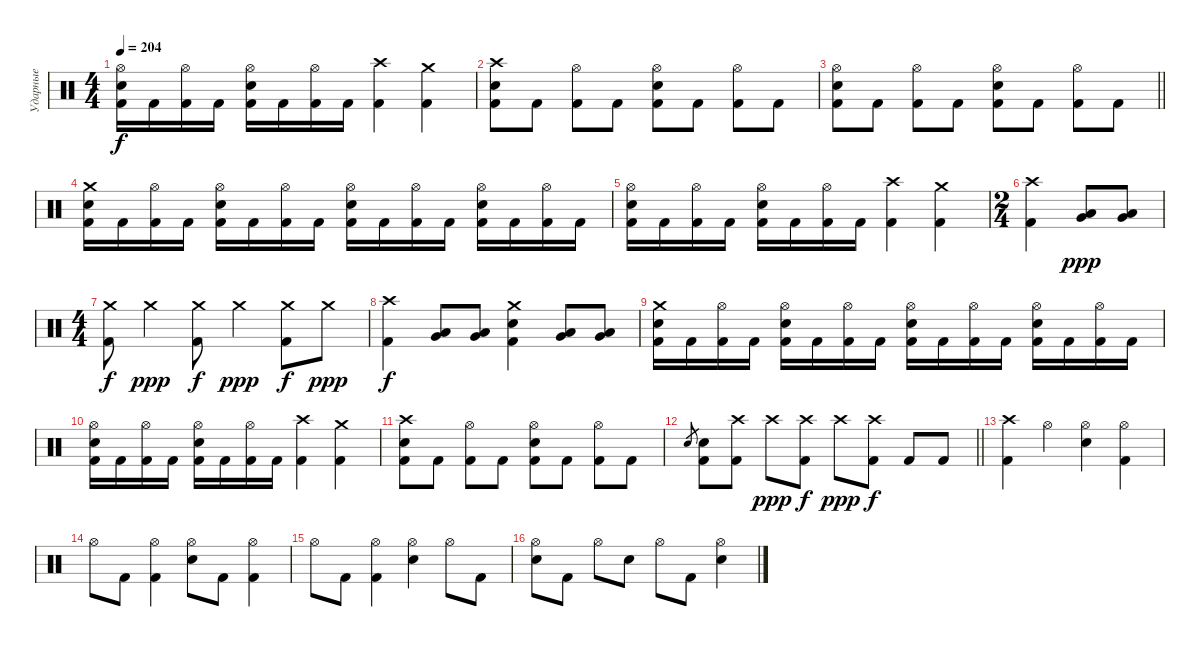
\track ("Ударные" "Ударные") {instrument percussion}
\staff {score}
\articulation defaults
\ts (4 4)
\tempo 204
\clef neutral
\ks c
("Hi-Hat (open)" "Snare (hit) 2" "Kick (hit) 2").16{dy f} "Kick (hit) 2".16 ("Hi-Hat (open)" "Kick (hit) 2").16 "Kick (hit) 2".16 ("Hi-Hat (open)" "Snare (hit) 2" "Kick (hit) 2").16 "Kick (hit) 2".16 ("Hi-Hat (open)" "Kick (hit) 2").16 "Kick (hit) 2".16 ("Crash high (hit)" "Kick (hit) 2").4 ("Crash medium (hit)" "Kick (hit) 2").4 |
("Crash high (hit)" "Snare (hit) 2" "Kick (hit) 2").8 "Kick (hit) 2".8 ("Hi-Hat (open)" "Kick (hit) 2").8 "Kick (hit) 2".8 ("Hi-Hat (open)" "Snare (hit) 2" "Kick (hit) 2").8 "Kick (hit) 2".8 ("Hi-Hat (open)" "Kick (hit) 2").8 "Kick (hit) 2".8 |
\barLineRight lightlight
("Hi-Hat (open)" "Snare (hit) 2" "Kick (hit) 2").8 "Kick (hit) 2".8 ("Hi-Hat (open)" "Kick (hit) 2").8 "Kick (hit) 2".8 ("Hi-Hat (open)" "Snare (hit) 2" "Kick (hit) 2").8 "Kick (hit) 2".8 ("Hi-Hat (open)" "Kick (hit) 2").8 "Kick (hit) 2".8 |
("Crash medium (hit)" "Snare (hit) 2" "Kick (hit) 2").16 "Kick (hit) 2".16 ("Hi-Hat (open)" "Kick (hit) 2").16 "Kick (hit) 2".16 ("Hi-Hat (open)" "Snare (hit) 2" "Kick (hit) 2").16 "Kick (hit) 2".16 ("Hi-Hat (open)" "Kick (hit) 2").16 "Kick (hit) 2".16 ("Hi-Hat (open)" "Snare (hit) 2" "Kick (hit) 2").16 "Kick (hit) 2".16 ("Hi-Hat (open)" "Kick (hit) 2").16 "Kick (hit) 2".16 ("Hi-Hat (open)" "Snare (hit) 2" "Kick (hit) 2").16 "Kick (hit) 2".16 ("Hi-Hat (open)" "Kick (hit) 2").16 "Kick (hit) 2".16 |
("Hi-Hat (open)" "Snare (hit) 2" "Kick (hit) 2").16 "Kick (hit) 2".16 ("Hi-Hat (open)" "Kick (hit) 2").16 "Kick (hit) 2".16 ("Hi-Hat (open)" "Snare (hit) 2" "Kick (hit) 2").16 "Kick (hit) 2".16 ("Hi-Hat (open)" "Kick (hit) 2").16 "Kick (hit) 2".16 ("Crash high (hit)" "Kick (hit) 2").4 ("Crash medium (hit)" "Kick (hit) 2").4 |
\ts (2 4)
("Crash high (hit)" "Kick (hit) 2").4 ("Low Tom (hit)" "Very Low Tom (hit)").8{dy ppp} ("Low Tom (hit)" "Very Low Tom (hit)").8 |
\ts (4 4)
("Crash medium (hit)" "Kick (hit) 2").8{dy f} "Crash medium (hit)".4{dy ppp} ("Crash medium (hit)" "Kick (hit) 2").8{dy f} "Crash medium (hit)".4{dy ppp} ("Crash medium (hit)" "Kick (hit) 2").8{dy f} "Crash medium (hit)".8{dy ppp} |
("Crash high (hit)" "Kick (hit) 2").4{dy f} ("Low Tom (hit)" "Very Low Tom (hit)").8 ("Low Tom (hit)" "Very Low Tom (hit)").8 ("Crash medium (hit)" "Snare (hit) 2" "Kick (hit) 2").4 ("Low Tom (hit)" "Very Low Tom (hit)").8 ("Low Tom (hit)" "Very Low Tom (hit)").8 |
("Crash medium (hit)" "Snare (hit) 2" "Kick (hit) 2").16 "Kick (hit) 2".16 ("Hi-Hat (open)" "Kick (hit) 2").16 "Kick (hit) 2".16 ("Hi-Hat (open)" "Snare (hit) 2" "Kick (hit) 2").16 "Kick (hit) 2".16 ("Hi-Hat (open)" "Kick (hit) 2").16 "Kick (hit) 2".16 ("Hi-Hat (open)" "Snare (hit) 2" "Kick (hit) 2").16 "Kick (hit) 2".16 ("Hi-Hat (open)" "Kick (hit) 2").16 "Kick (hit) 2".16 ("Hi-Hat (open)" "Snare (hit) 2" "Kick (hit) 2").16 "Kick (hit) 2".16 ("Hi-Hat (open)" "Kick (hit) 2").16 "Kick (hit) 2".16 |
("Hi-Hat (open)" "Snare (hit) 2" "Kick (hit) 2").16 "Kick (hit) 2".16 ("Hi-Hat (open)" "Kick (hit) 2").16 "Kick (hit) 2".16 ("Hi-Hat (open)" "Snare (hit) 2" "Kick (hit) 2").16 "Kick (hit) 2".16 ("Hi-Hat (open)" "Kick (hit) 2").16 "Kick (hit) 2".16 ("Crash high (hit)" "Kick (hit) 2").4 ("Crash medium (hit)" "Kick (hit) 2").4 |
("Crash high (hit)" "Snare (hit) 2" "Kick (hit) 2").8 "Kick (hit) 2".8 ("Hi-Hat (open)" "Kick (hit) 2").8 "Kick (hit) 2".8 ("Hi-Hat (open)" "Snare (hit) 2" "Kick (hit) 2").8 "Kick (hit) 2".8 ("Hi-Hat (open)" "Kick (hit) 2").8 "Kick (hit) 2".8 |
\barLineRight lightlight "Snare (hit) 2".8{gr}
("Snare (hit) 2" "Kick (hit) 2").8 ("Crash high (hit)" "Kick (hit) 2").8 "Crash high (hit)".8{dy ppp} ("Crash high (hit)" "Kick (hit) 2").8{dy f} "Crash high (hit)".8{dy ppp} ("Crash high (hit)" "Kick (hit) 2").8{dy f} "Kick (hit) 2".8 "Kick (hit) 2".8 |
("Crash high (hit)" "Kick (hit) 2").4 "Hi-Hat (open)".4 ("Hi-Hat (open)" "Snare (hit) 2").4 ("Hi-Hat (open)" "Kick (hit) 2").4 |
"Hi-Hat (open)".8 "Kick (hit) 2".8 ("Hi-Hat (open)" "Kick (hit) 2").4 ("Hi-Hat (open)" "Snare (hit) 2").8 "Kick (hit) 2".8 ("Hi-Hat (open)" "Kick (hit) 2").4 |
"Hi-Hat (open)".8 "Kick (hit) 2".8 ("Hi-Hat (open)" "Kick (hit) 2").4 ("Hi-Hat (open)" "Snare (hit) 2").4 "Hi-Hat (open)".8 "Kick (hit) 2".8 |
("Hi-Hat (open)" "Snare (hit) 2").8 "Kick (hit) 2".8 "Hi-Hat (open)".8 "Snare (hit) 2".8 "Hi-Hat (open)".8 "Kick (hit) 2".8 ("Hi-Hat (open)" "Snare (hit) 2").4
